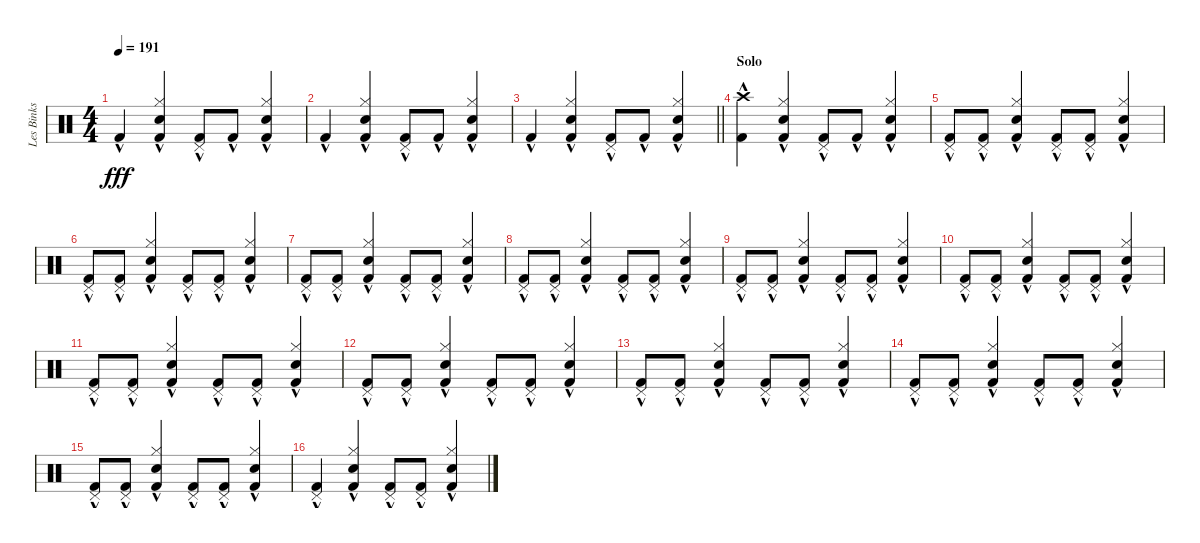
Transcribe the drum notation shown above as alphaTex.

\track ("Les Binks" "Les Binks") {instrument percussion}
\staff {score}
\articulation defaults
\ts (4 4)
\tempo 191
\clef neutral
\ks c "Kick (hit) 2"{hac}.4{dy fff}
("Hi-Hat (closed)" "Snare (hit) 2" "Kick (hit) 2"{hac}).4 ("Pedal Hi-Hat (hit)" "Kick (hit) 2"{hac}).8 "Kick (hit) 2"{hac}.8 ("Hi-Hat (closed)" "Snare (hit) 2" "Kick (hit) 2"{hac}).4 |
"Kick (hit) 2"{hac}.4 ("Hi-Hat (closed)" "Snare (hit) 2" "Kick (hit) 2"{hac}).4 ("Pedal Hi-Hat (hit)" "Kick (hit) 2"{hac}).8 "Kick (hit) 2"{hac}.8 ("Hi-Hat (closed)" "Snare (hit) 2" "Kick (hit) 2"{hac}).4 |
\barLineRight lightlight "Kick (hit) 2"{hac}.4
("Hi-Hat (closed)" "Snare (hit) 2" "Kick (hit) 2"{hac}).4 ("Pedal Hi-Hat (hit)" "Kick (hit) 2"{hac}).8 "Kick (hit) 2"{hac}.8 ("Hi-Hat (closed)" "Snare (hit) 2" "Kick (hit) 2"{hac}).4 |
\section ("" "Solo")
("Crash high (hit)" "Kick (hit) 2"{hac}).4 ("Hi-Hat (closed)" "Snare (hit) 2" "Kick (hit) 2"{hac}).4 ("Pedal Hi-Hat (hit)" "Kick (hit) 2"{hac}).8 "Kick (hit) 2"{hac}.8 ("Hi-Hat (closed)" "Snare (hit) 2" "Kick (hit) 2"{hac}).4 |
("Pedal Hi-Hat (hit)" "Kick (hit) 2"{hac}).8 ("Pedal Hi-Hat (hit)" "Kick (hit) 2"{hac}).8 ("Hi-Hat (closed)" "Snare (hit) 2" "Kick (hit) 2"{hac}).4 ("Pedal Hi-Hat (hit)" "Kick (hit) 2"{hac}).8 ("Pedal Hi-Hat (hit)" "Kick (hit) 2"{hac}).8 ("Hi-Hat (closed)" "Snare (hit) 2" "Kick (hit) 2"{hac}).4 |
("Pedal Hi-Hat (hit)" "Kick (hit) 2"{hac}).8 ("Pedal Hi-Hat (hit)" "Kick (hit) 2"{hac}).8 ("Hi-Hat (closed)" "Snare (hit) 2" "Kick (hit) 2"{hac}).4 ("Pedal Hi-Hat (hit)" "Kick (hit) 2"{hac}).8 ("Pedal Hi-Hat (hit)" "Kick (hit) 2"{hac}).8 ("Hi-Hat (closed)" "Snare (hit) 2" "Kick (hit) 2"{hac}).4 |
("Pedal Hi-Hat (hit)" "Kick (hit) 2"{hac}).8 ("Pedal Hi-Hat (hit)" "Kick (hit) 2"{hac}).8 ("Hi-Hat (closed)" "Snare (hit) 2" "Kick (hit) 2"{hac}).4 ("Pedal Hi-Hat (hit)" "Kick (hit) 2"{hac}).8 ("Pedal Hi-Hat (hit)" "Kick (hit) 2"{hac}).8 ("Hi-Hat (closed)" "Snare (hit) 2" "Kick (hit) 2"{hac}).4 |
("Pedal Hi-Hat (hit)" "Kick (hit) 2"{hac}).8 ("Pedal Hi-Hat (hit)" "Kick (hit) 2"{hac}).8 ("Hi-Hat (closed)" "Snare (hit) 2" "Kick (hit) 2"{hac}).4 ("Pedal Hi-Hat (hit)" "Kick (hit) 2"{hac}).8 ("Pedal Hi-Hat (hit)" "Kick (hit) 2"{hac}).8 ("Hi-Hat (closed)" "Snare (hit) 2" "Kick (hit) 2"{hac}).4 |
("Pedal Hi-Hat (hit)" "Kick (hit) 2"{hac}).8 ("Pedal Hi-Hat (hit)" "Kick (hit) 2"{hac}).8 ("Hi-Hat (closed)" "Snare (hit) 2" "Kick (hit) 2"{hac}).4 ("Pedal Hi-Hat (hit)" "Kick (hit) 2"{hac}).8 ("Pedal Hi-Hat (hit)" "Kick (hit) 2"{hac}).8 ("Hi-Hat (closed)" "Snare (hit) 2" "Kick (hit) 2"{hac}).4 |
("Pedal Hi-Hat (hit)" "Kick (hit) 2"{hac}).8 ("Pedal Hi-Hat (hit)" "Kick (hit) 2"{hac}).8 ("Hi-Hat (closed)" "Snare (hit) 2" "Kick (hit) 2"{hac}).4 ("Pedal Hi-Hat (hit)" "Kick (hit) 2"{hac}).8 ("Pedal Hi-Hat (hit)" "Kick (hit) 2"{hac}).8 ("Hi-Hat (closed)" "Snare (hit) 2" "Kick (hit) 2"{hac}).4 |
("Pedal Hi-Hat (hit)" "Kick (hit) 2"{hac}).8 ("Pedal Hi-Hat (hit)" "Kick (hit) 2"{hac}).8 ("Hi-Hat (closed)" "Snare (hit) 2" "Kick (hit) 2"{hac}).4 ("Pedal Hi-Hat (hit)" "Kick (hit) 2"{hac}).8 ("Pedal Hi-Hat (hit)" "Kick (hit) 2"{hac}).8 ("Hi-Hat (closed)" "Snare (hit) 2" "Kick (hit) 2"{hac}).4 |
("Pedal Hi-Hat (hit)" "Kick (hit) 2"{hac}).8 ("Pedal Hi-Hat (hit)" "Kick (hit) 2"{hac}).8 ("Hi-Hat (closed)" "Snare (hit) 2" "Kick (hit) 2"{hac}).4 ("Pedal Hi-Hat (hit)" "Kick (hit) 2"{hac}).8 ("Pedal Hi-Hat (hit)" "Kick (hit) 2"{hac}).8 ("Hi-Hat (closed)" "Snare (hit) 2" "Kick (hit) 2"{hac}).4 |
("Pedal Hi-Hat (hit)" "Kick (hit) 2"{hac}).8 ("Pedal Hi-Hat (hit)" "Kick (hit) 2"{hac}).8 ("Hi-Hat (closed)" "Snare (hit) 2" "Kick (hit) 2"{hac}).4 ("Pedal Hi-Hat (hit)" "Kick (hit) 2"{hac}).8 ("Pedal Hi-Hat (hit)" "Kick (hit) 2"{hac}).8 ("Hi-Hat (closed)" "Snare (hit) 2" "Kick (hit) 2"{hac}).4 |
("Pedal Hi-Hat (hit)" "Kick (hit) 2"{hac}).8 ("Pedal Hi-Hat (hit)" "Kick (hit) 2"{hac}).8 ("Hi-Hat (closed)" "Snare (hit) 2" "Kick (hit) 2"{hac}).4 ("Pedal Hi-Hat (hit)" "Kick (hit) 2"{hac}).8 ("Pedal Hi-Hat (hit)" "Kick (hit) 2"{hac}).8 ("Hi-Hat (closed)" "Snare (hit) 2" "Kick (hit) 2"{hac}).4 |
("Pedal Hi-Hat (hit)" "Kick (hit) 2"{hac}).8 ("Pedal Hi-Hat (hit)" "Kick (hit) 2"{hac}).8 ("Hi-Hat (closed)" "Snare (hit) 2" "Kick (hit) 2"{hac}).4 ("Pedal Hi-Hat (hit)" "Kick (hit) 2"{hac}).8 ("Pedal Hi-Hat (hit)" "Kick (hit) 2"{hac}).8 ("Hi-Hat (closed)" "Snare (hit) 2" "Kick (hit) 2"{hac}).4 |
("Pedal Hi-Hat (hit)" "Kick (hit) 2"{hac}).4 ("Hi-Hat (closed)" "Snare (hit) 2" "Kick (hit) 2"{hac}).4 ("Pedal Hi-Hat (hit)" "Kick (hit) 2"{hac}).8 ("Pedal Hi-Hat (hit)" "Kick (hit) 2"{hac}).8 ("Hi-Hat (closed)" "Snare (hit) 2" "Kick (hit) 2"{hac}).4
